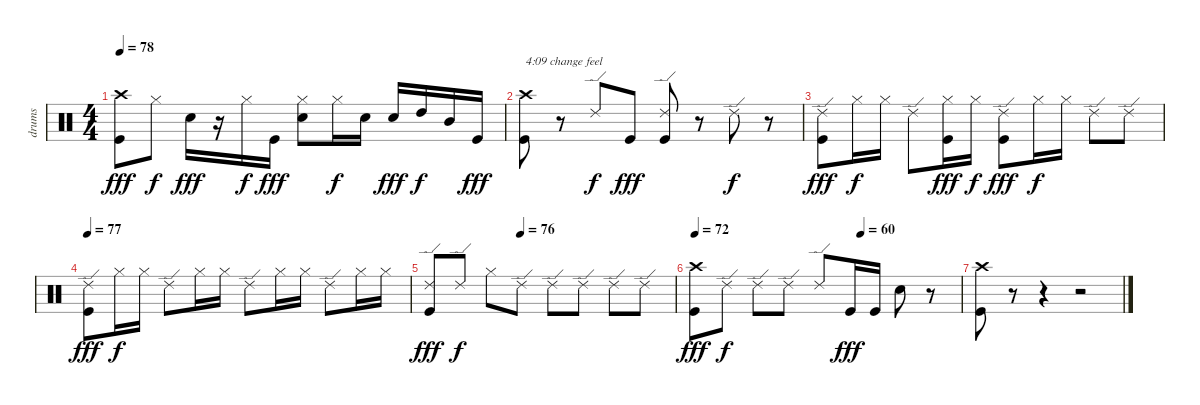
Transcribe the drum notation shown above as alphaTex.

\track ("drums" "drums") {instrument percussion}
\staff {score}
\articulation defaults
\ts (4 4)
\tempo 78
\clef neutral
\ks c
("Crash high (hit)" "Kick (hit)").8{txt " " dy fff} "Hi-Hat (closed)".8{dy f} "Electric Snare (hit)".16{dy fff} r.16 "Hi-Hat (closed)".16{dy f} "Kick (hit)".16{dy fff} ("Electric Snare (hit)" "Hi-Hat (closed)").8 "Hi-Hat (closed)".16{dy f} "Electric Snare (hit)".16 "Electric Snare (hit)".16{dy fff} "High Tom (hit)".16{dy f} "Mid Tom (hit)".16 "Kick (hit)".16{dy fff} |
("Crash high (hit)" "Kick (hit)").8{txt "4:09 change feel"} r.8 "Ride (edge) 2".8{dy f} "Kick (hit)".8{dy fff} ("Ride (edge) 2" "Kick (hit)").8 r.8 "Ride (edge) 2".8{dy f} r.8 |
("Ride (edge) 2" "Kick (hit)").8{txt " " dy fff} "Hi-Hat (closed)".16{dy f} "Hi-Hat (closed)".16 "Ride (edge) 2".8 ("Hi-Hat (closed)" "Kick (hit)").16{dy fff} "Hi-Hat (closed)".16{dy f} ("Ride (edge) 2" "Kick (hit)").8{dy fff} "Hi-Hat (closed)".16{dy f} "Hi-Hat (closed)".16 "Ride (edge) 2".8 "Ride (edge) 2".8 |
\tempo 77
("Ride (edge) 2" "Kick (hit)").8{txt " " dy fff} "Hi-Hat (closed)".16{dy f} "Hi-Hat (closed)".16 "Ride (edge) 2".8 "Hi-Hat (closed)".16 "Hi-Hat (closed)".16 "Ride (edge) 2".8 "Hi-Hat (closed)".16 "Hi-Hat (closed)".16 "Ride (edge) 2".8 "Hi-Hat (closed)".16 "Hi-Hat (closed)".16 |
\tempo (76 0.375)
("Ride (edge) 2" "Kick (hit)").8{txt " " dy fff} "Ride (edge) 2".8{dy f} "Hi-Hat (closed)".8 "Ride (edge) 2".8 "Ride (edge) 2".8 "Ride (edge) 2".8 "Ride (edge) 2".8 "Ride (edge) 2".8 |
\tempo (60 0.625)
\tempo 72
("Crash high (hit)" "Kick (hit)").8{txt " " dy fff} "Ride (edge) 2".8{dy f} "Ride (edge) 2".8 "Ride (edge) 2".8 "Ride (edge) 2".8 "Kick (hit)".16{dy fff} "Kick (hit)".16 "Electric Snare (hit)".8 r.8 |
("Crash high (hit)" "Kick (hit)").8{txt " "} r.8 r.4 r.2
